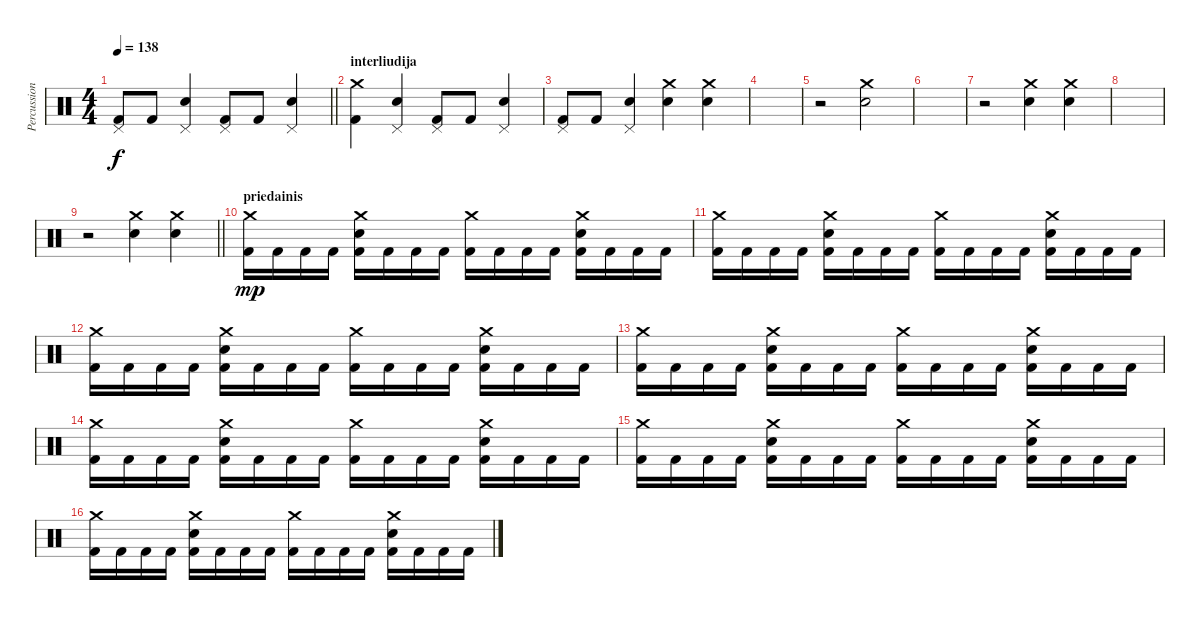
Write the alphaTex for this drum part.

\track ("Percussion" "Percussion") {instrument percussion}
\staff {score}
\articulation defaults
\ts (4 4)
\tempo 138
\clef neutral
\barLineRight lightlight
\ks c
("Pedal Hi-Hat (hit)" "Kick (hit) 2").8{dy f} "Kick (hit) 2".8 ("Pedal Hi-Hat (hit)" "Snare (hit) 2").4 ("Pedal Hi-Hat (hit)" "Kick (hit) 2").8 "Kick (hit) 2".8 ("Pedal Hi-Hat (hit)" "Snare (hit) 2").4 |
\section ("" "interliudija")
("Crash medium (hit)" "Kick (hit) 2").4 ("Pedal Hi-Hat (hit)" "Snare (hit) 2").4 ("Pedal Hi-Hat (hit)" "Kick (hit) 2").8 "Kick (hit) 2".8 ("Pedal Hi-Hat (hit)" "Snare (hit) 2").4 |
("Pedal Hi-Hat (hit)" "Kick (hit) 2").8 "Kick (hit) 2".8 ("Pedal Hi-Hat (hit)" "Snare (hit) 2").4 ("Crash medium (hit)" "Snare (hit) 2").4 ("Crash medium (hit)" "Snare (hit) 2").4 |
|
r.2 ("Crash medium (hit)" "Snare (hit) 2").2 |
|
r.2 ("Crash medium (hit)" "Snare (hit) 2").4 ("Crash medium (hit)" "Snare (hit) 2").4 |
|
\barLineRight lightlight
r.2 ("Crash medium (hit)" "Snare (hit) 2").4 ("Crash medium (hit)" "Snare (hit) 2").4 |
\section ("" "priedainis")
("Crash medium (hit)" "Kick (hit) 2").16{dy mp} "Kick (hit) 2".16 "Kick (hit) 2".16 "Kick (hit) 2".16 ("Crash medium (hit)" "Snare (hit) 2" "Kick (hit) 2").16 "Kick (hit) 2".16 "Kick (hit) 2".16 "Kick (hit) 2".16 ("Crash medium (hit)" "Kick (hit) 2").16 "Kick (hit) 2".16 "Kick (hit) 2".16 "Kick (hit) 2".16 ("Crash medium (hit)" "Snare (hit) 2" "Kick (hit) 2").16 "Kick (hit) 2".16 "Kick (hit) 2".16 "Kick (hit) 2".16 |
("Crash medium (hit)" "Kick (hit) 2").16 "Kick (hit) 2".16 "Kick (hit) 2".16 "Kick (hit) 2".16 ("Crash medium (hit)" "Snare (hit) 2" "Kick (hit) 2").16 "Kick (hit) 2".16 "Kick (hit) 2".16 "Kick (hit) 2".16 ("Crash medium (hit)" "Kick (hit) 2").16 "Kick (hit) 2".16 "Kick (hit) 2".16 "Kick (hit) 2".16 ("Crash medium (hit)" "Snare (hit) 2" "Kick (hit) 2").16 "Kick (hit) 2".16 "Kick (hit) 2".16 "Kick (hit) 2".16 |
("Crash medium (hit)" "Kick (hit) 2").16 "Kick (hit) 2".16 "Kick (hit) 2".16 "Kick (hit) 2".16 ("Crash medium (hit)" "Snare (hit) 2" "Kick (hit) 2").16 "Kick (hit) 2".16 "Kick (hit) 2".16 "Kick (hit) 2".16 ("Crash medium (hit)" "Kick (hit) 2").16 "Kick (hit) 2".16 "Kick (hit) 2".16 "Kick (hit) 2".16 ("Crash medium (hit)" "Snare (hit) 2" "Kick (hit) 2").16 "Kick (hit) 2".16 "Kick (hit) 2".16 "Kick (hit) 2".16 |
("Crash medium (hit)" "Kick (hit) 2").16 "Kick (hit) 2".16 "Kick (hit) 2".16 "Kick (hit) 2".16 ("Crash medium (hit)" "Snare (hit) 2" "Kick (hit) 2").16 "Kick (hit) 2".16 "Kick (hit) 2".16 "Kick (hit) 2".16 ("Crash medium (hit)" "Kick (hit) 2").16 "Kick (hit) 2".16 "Kick (hit) 2".16 "Kick (hit) 2".16 ("Crash medium (hit)" "Snare (hit) 2" "Kick (hit) 2").16 "Kick (hit) 2".16 "Kick (hit) 2".16 "Kick (hit) 2".16 |
("Crash medium (hit)" "Kick (hit) 2").16 "Kick (hit) 2".16 "Kick (hit) 2".16 "Kick (hit) 2".16 ("Crash medium (hit)" "Snare (hit) 2" "Kick (hit) 2").16 "Kick (hit) 2".16 "Kick (hit) 2".16 "Kick (hit) 2".16 ("Crash medium (hit)" "Kick (hit) 2").16 "Kick (hit) 2".16 "Kick (hit) 2".16 "Kick (hit) 2".16 ("Crash medium (hit)" "Snare (hit) 2" "Kick (hit) 2").16 "Kick (hit) 2".16 "Kick (hit) 2".16 "Kick (hit) 2".16 |
("Crash medium (hit)" "Kick (hit) 2").16 "Kick (hit) 2".16 "Kick (hit) 2".16 "Kick (hit) 2".16 ("Crash medium (hit)" "Snare (hit) 2" "Kick (hit) 2").16 "Kick (hit) 2".16 "Kick (hit) 2".16 "Kick (hit) 2".16 ("Crash medium (hit)" "Kick (hit) 2").16 "Kick (hit) 2".16 "Kick (hit) 2".16 "Kick (hit) 2".16 ("Crash medium (hit)" "Snare (hit) 2" "Kick (hit) 2").16 "Kick (hit) 2".16 "Kick (hit) 2".16 "Kick (hit) 2".16 |
("Crash medium (hit)" "Kick (hit) 2").16 "Kick (hit) 2".16 "Kick (hit) 2".16 "Kick (hit) 2".16 ("Crash medium (hit)" "Snare (hit) 2" "Kick (hit) 2").16 "Kick (hit) 2".16 "Kick (hit) 2".16 "Kick (hit) 2".16 ("Crash medium (hit)" "Kick (hit) 2").16 "Kick (hit) 2".16 "Kick (hit) 2".16 "Kick (hit) 2".16 ("Crash medium (hit)" "Snare (hit) 2" "Kick (hit) 2").16 "Kick (hit) 2".16 "Kick (hit) 2".16 "Kick (hit) 2".16
